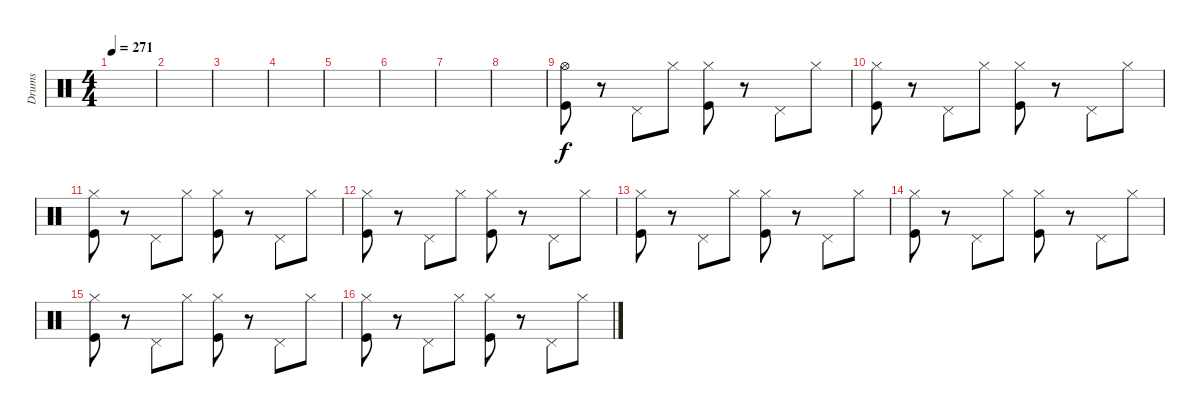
\track ("Drums" "Drums") {instrument percussion}
\staff {score}
\articulation defaults
\ts (4 4)
\tempo 271
\clef neutral
\ks c
|
|
|
|
|
|
|
|
("Hi-Hat (open)" "Kick (hit)").8 r.8 "Pedal Hi-Hat (hit)".8 "Hi-Hat (closed)".8 ("Hi-Hat (closed)" "Kick (hit)").8 r.8 "Pedal Hi-Hat (hit)".8 "Hi-Hat (closed)".8 |
("Hi-Hat (closed)" "Kick (hit)").8 r.8 "Pedal Hi-Hat (hit)".8 "Hi-Hat (closed)".8 ("Hi-Hat (closed)" "Kick (hit)").8 r.8 "Pedal Hi-Hat (hit)".8 "Hi-Hat (closed)".8 |
("Hi-Hat (closed)" "Kick (hit)").8 r.8 "Pedal Hi-Hat (hit)".8 "Hi-Hat (closed)".8 ("Hi-Hat (closed)" "Kick (hit)").8 r.8 "Pedal Hi-Hat (hit)".8 "Hi-Hat (closed)".8 |
("Hi-Hat (closed)" "Kick (hit)").8 r.8 "Pedal Hi-Hat (hit)".8 "Hi-Hat (closed)".8 ("Hi-Hat (closed)" "Kick (hit)").8 r.8 "Pedal Hi-Hat (hit)".8 "Hi-Hat (closed)".8 |
("Hi-Hat (closed)" "Kick (hit)").8 r.8 "Pedal Hi-Hat (hit)".8 "Hi-Hat (closed)".8 ("Hi-Hat (closed)" "Kick (hit)").8 r.8 "Pedal Hi-Hat (hit)".8 "Hi-Hat (closed)".8 |
("Hi-Hat (closed)" "Kick (hit)").8 r.8 "Pedal Hi-Hat (hit)".8 "Hi-Hat (closed)".8 ("Hi-Hat (closed)" "Kick (hit)").8 r.8 "Pedal Hi-Hat (hit)".8 "Hi-Hat (closed)".8 |
("Hi-Hat (closed)" "Kick (hit)").8 r.8 "Pedal Hi-Hat (hit)".8 "Hi-Hat (closed)".8 ("Hi-Hat (closed)" "Kick (hit)").8 r.8 "Pedal Hi-Hat (hit)".8 "Hi-Hat (closed)".8 |
("Hi-Hat (closed)" "Kick (hit)").8 r.8 "Pedal Hi-Hat (hit)".8 "Hi-Hat (closed)".8 ("Hi-Hat (closed)" "Kick (hit)").8 r.8 "Pedal Hi-Hat (hit)".8 "Hi-Hat (closed)".8
